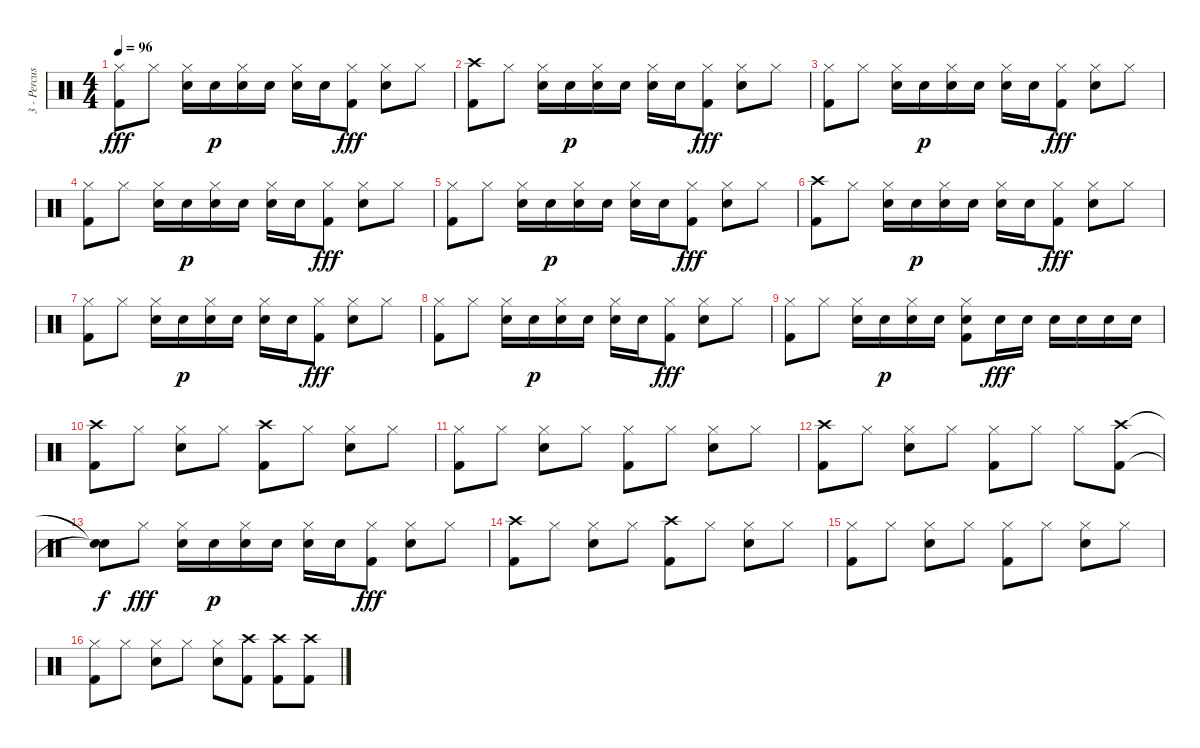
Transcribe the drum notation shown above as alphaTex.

\track ("3 - Percussion" "3 - Percus") {instrument percussion}
\staff {score}
\articulation defaults
\ts (4 4)
\tempo 96
\clef neutral
\ks c
("Hi-Hat (closed)" "Kick (hit) 2").8{dy fff} "Hi-Hat (closed)".8 ("Hi-Hat (closed)" "Snare (hit) 2").16 "Snare (hit) 2".16{dy p} ("Hi-Hat (closed)" "Snare (hit) 2").16 "Snare (hit) 2".16 ("Hi-Hat (closed)" "Snare (hit) 2").16 "Snare (hit) 2".16 ("Hi-Hat (closed)" "Kick (hit) 2").8{dy fff} ("Hi-Hat (closed)" "Snare (hit) 2").8 "Hi-Hat (closed)".8 |
("Crash high (hit)" "Kick (hit) 2").8 "Hi-Hat (closed)".8 ("Hi-Hat (closed)" "Snare (hit) 2").16 "Snare (hit) 2".16{dy p} ("Hi-Hat (closed)" "Snare (hit) 2").16 "Snare (hit) 2".16 ("Hi-Hat (closed)" "Snare (hit) 2").16 "Snare (hit) 2".16 ("Hi-Hat (closed)" "Kick (hit) 2").8{dy fff} ("Hi-Hat (closed)" "Snare (hit) 2").8 "Hi-Hat (closed)".8 |
("Hi-Hat (closed)" "Kick (hit) 2").8 "Hi-Hat (closed)".8 ("Hi-Hat (closed)" "Snare (hit) 2").16 "Snare (hit) 2".16{dy p} ("Hi-Hat (closed)" "Snare (hit) 2").16 "Snare (hit) 2".16 ("Hi-Hat (closed)" "Snare (hit) 2").16 "Snare (hit) 2".16 ("Hi-Hat (closed)" "Kick (hit) 2").8{dy fff} ("Hi-Hat (closed)" "Snare (hit) 2").8 "Hi-Hat (closed)".8 |
("Hi-Hat (closed)" "Kick (hit) 2").8 "Hi-Hat (closed)".8 ("Hi-Hat (closed)" "Snare (hit) 2").16 "Snare (hit) 2".16{dy p} ("Hi-Hat (closed)" "Snare (hit) 2").16 "Snare (hit) 2".16 ("Hi-Hat (closed)" "Snare (hit) 2").16 "Snare (hit) 2".16 ("Hi-Hat (closed)" "Kick (hit) 2").8{dy fff} ("Hi-Hat (closed)" "Snare (hit) 2").8 "Hi-Hat (closed)".8 |
("Hi-Hat (closed)" "Kick (hit) 2").8 "Hi-Hat (closed)".8 ("Hi-Hat (closed)" "Snare (hit) 2").16 "Snare (hit) 2".16{dy p} ("Hi-Hat (closed)" "Snare (hit) 2").16 "Snare (hit) 2".16 ("Hi-Hat (closed)" "Snare (hit) 2").16 "Snare (hit) 2".16 ("Hi-Hat (closed)" "Kick (hit) 2").8{dy fff} ("Hi-Hat (closed)" "Snare (hit) 2").8 "Hi-Hat (closed)".8 |
("Crash high (hit)" "Kick (hit) 2").8 "Hi-Hat (closed)".8 ("Hi-Hat (closed)" "Snare (hit) 2").16 "Snare (hit) 2".16{dy p} ("Hi-Hat (closed)" "Snare (hit) 2").16 "Snare (hit) 2".16 ("Hi-Hat (closed)" "Snare (hit) 2").16 "Snare (hit) 2".16 ("Hi-Hat (closed)" "Kick (hit) 2").8{dy fff} ("Hi-Hat (closed)" "Snare (hit) 2").8 "Hi-Hat (closed)".8 |
("Hi-Hat (closed)" "Kick (hit) 2").8 "Hi-Hat (closed)".8 ("Hi-Hat (closed)" "Snare (hit) 2").16 "Snare (hit) 2".16{dy p} ("Hi-Hat (closed)" "Snare (hit) 2").16 "Snare (hit) 2".16 ("Hi-Hat (closed)" "Snare (hit) 2").16 "Snare (hit) 2".16 ("Hi-Hat (closed)" "Kick (hit) 2").8{dy fff} ("Hi-Hat (closed)" "Snare (hit) 2").8 "Hi-Hat (closed)".8 |
("Hi-Hat (closed)" "Kick (hit) 2").8 "Hi-Hat (closed)".8 ("Hi-Hat (closed)" "Snare (hit) 2").16 "Snare (hit) 2".16{dy p} ("Hi-Hat (closed)" "Snare (hit) 2").16 "Snare (hit) 2".16 ("Hi-Hat (closed)" "Snare (hit) 2").16 "Snare (hit) 2".16 ("Hi-Hat (closed)" "Kick (hit) 2").8{dy fff} ("Hi-Hat (closed)" "Snare (hit) 2").8 "Hi-Hat (closed)".8 |
("Hi-Hat (closed)" "Kick (hit) 2").8 "Hi-Hat (closed)".8 ("Hi-Hat (closed)" "Snare (hit) 2").16 "Snare (hit) 2".16{dy p} ("Hi-Hat (closed)" "Snare (hit) 2").16 "Snare (hit) 2".16 ("Hi-Hat (closed)" "Snare (hit) 2" "Kick (hit) 2").8 "Snare (hit) 2".16{dy fff} "Snare (hit) 2".16 "Snare (hit) 2".16 "Snare (hit) 2".16 "Snare (hit) 2".16 "Snare (hit) 2".16 |
("Crash high (hit)" "Kick (hit) 2").8 "Hi-Hat (closed)".8 ("Hi-Hat (closed)" "Snare (hit) 2").8 "Hi-Hat (closed)".8 ("Crash high (hit)" "Kick (hit) 2").8 "Hi-Hat (closed)".8 ("Hi-Hat (closed)" "Snare (hit) 2").8 "Hi-Hat (closed)".8 |
("Hi-Hat (closed)" "Kick (hit) 2").8 "Hi-Hat (closed)".8 ("Hi-Hat (closed)" "Snare (hit) 2").8 "Hi-Hat (closed)".8 ("Hi-Hat (closed)" "Kick (hit) 2").8 "Hi-Hat (closed)".8 ("Hi-Hat (closed)" "Snare (hit) 2").8 "Hi-Hat (closed)".8 |
("Crash high (hit)" "Kick (hit) 2").8 "Hi-Hat (closed)".8 ("Hi-Hat (closed)" "Snare (hit) 2").8 "Hi-Hat (closed)".8 ("Hi-Hat (closed)" "Kick (hit) 2").8 "Hi-Hat (closed)".8 "Hi-Hat (closed)".8 ("Crash high (hit)" "Kick (hit) 2").8 |
("Snare (hit)"{t} "Snare (hit)"{t}).8{dy f} "Hi-Hat (closed)".8{dy fff} ("Hi-Hat (closed)" "Snare (hit) 2").16 "Snare (hit) 2".16{dy p} ("Hi-Hat (closed)" "Snare (hit) 2").16 "Snare (hit) 2".16 ("Hi-Hat (closed)" "Snare (hit) 2").16 "Snare (hit) 2".16 ("Hi-Hat (closed)" "Kick (hit) 2").8{dy fff} ("Hi-Hat (closed)" "Snare (hit) 2").8 "Hi-Hat (closed)".8 |
("Crash high (hit)" "Kick (hit) 2").8 "Hi-Hat (closed)".8 ("Hi-Hat (closed)" "Snare (hit) 2").8 "Hi-Hat (closed)".8 ("Crash high (hit)" "Kick (hit) 2").8 "Hi-Hat (closed)".8 ("Hi-Hat (closed)" "Snare (hit) 2").8 "Hi-Hat (closed)".8 |
("Hi-Hat (closed)" "Kick (hit) 2").8 "Hi-Hat (closed)".8 ("Hi-Hat (closed)" "Snare (hit) 2").8 "Hi-Hat (closed)".8 ("Hi-Hat (closed)" "Kick (hit) 2").8 "Hi-Hat (closed)".8 ("Hi-Hat (closed)" "Snare (hit) 2").8 "Hi-Hat (closed)".8 |
("Hi-Hat (closed)" "Kick (hit) 2").8 "Hi-Hat (closed)".8 ("Hi-Hat (closed)" "Snare (hit) 2").8 "Hi-Hat (closed)".8 ("Hi-Hat (closed)" "Snare (hit) 2").8 ("Crash high (hit)" "Kick (hit) 2").8 ("Crash high (hit)" "Kick (hit) 2").8 ("Crash high (hit)" "Kick (hit) 2").8
